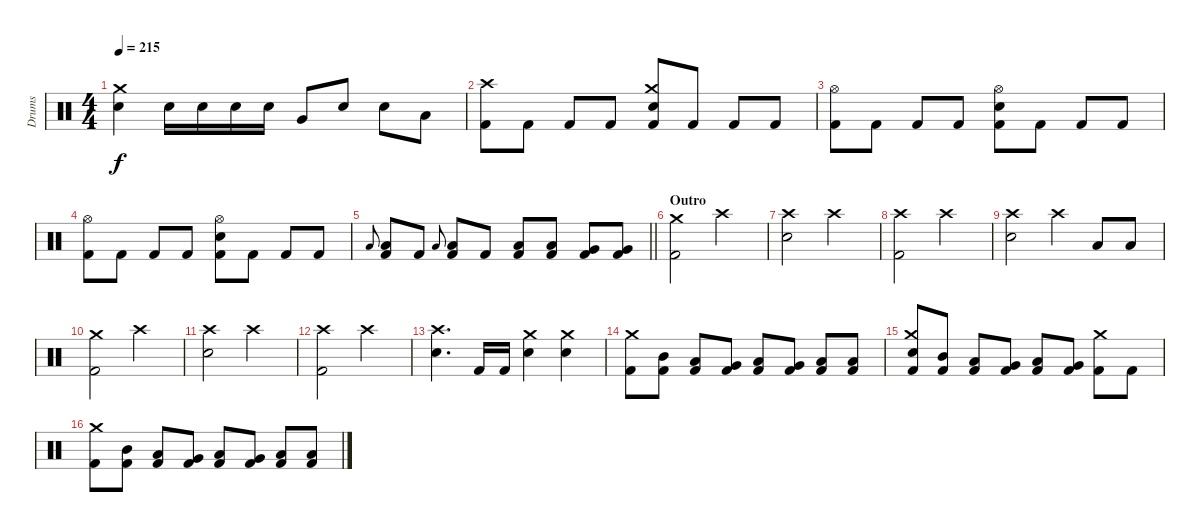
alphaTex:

\track ("Drums" "Drums") {instrument percussion}
\staff {score}
\articulation defaults
\ts (4 4)
\tempo 215
\clef neutral
\ks c
("Electric Snare (hit)" "Crash medium (hit)").4{dy f} "Electric Snare (hit)".16 "Electric Snare (hit)".16 "Electric Snare (hit)".16 "Electric Snare (hit)".16 "Very Low Tom (hit)".8 "Electric Snare (hit)".8 "Electric Snare (hit)".8 "Low Tom (hit)".8 |
("Kick (hit) 2" "Crash high (hit)").8 "Kick (hit) 2".8 "Kick (hit) 2".8 "Kick (hit) 2".8 ("Kick (hit) 2" "Electric Snare (hit)" "Crash medium (hit)").8 "Kick (hit) 2".8 "Kick (hit) 2".8 "Kick (hit) 2".8 |
("Kick (hit) 2" "Hi-Hat (open)").8 "Kick (hit) 2".8 "Kick (hit) 2".8 "Kick (hit) 2".8 ("Kick (hit) 2" "Electric Snare (hit)" "Hi-Hat (open)").8 "Kick (hit) 2".8 "Kick (hit) 2".8 "Kick (hit) 2".8 |
("Kick (hit) 2" "Hi-Hat (open)").8 "Kick (hit) 2".8 "Kick (hit) 2".8 "Kick (hit) 2".8 ("Kick (hit) 2" "Electric Snare (hit)" "Hi-Hat (open)").8 "Kick (hit) 2".8 "Kick (hit) 2".8 "Kick (hit) 2".8 |
\barLineRight lightlight "Low Tom (hit)".8{gr onbeat}
("Kick (hit) 2" "Low Tom (hit)").8 "Kick (hit) 2".8 "Low Tom (hit)".8{gr onbeat} ("Kick (hit) 2" "Low Tom (hit)").8 "Kick (hit) 2".8 ("Kick (hit) 2" "Low Tom (hit)").8 ("Kick (hit) 2" "Low Tom (hit)").8 ("Kick (hit) 2" "Very Low Tom (hit)").8 ("Kick (hit) 2" "Very Low Tom (hit)").8 |
\section ("" "Outro")
("Crash medium (hit)" "Kick (hit) 2").2 "Crash high (hit)".2 |
("Crash high (hit)" "Electric Snare (hit)").2 "Crash high (hit)".2 |
("Kick (hit) 2" "Crash high (hit)").2 "Crash high (hit)".2 |
("Crash high (hit)" "Electric Snare (hit)").2 "Crash high (hit)".4 "Low Tom (hit)".8 "Low Tom (hit)".8 |
("Crash medium (hit)" "Kick (hit) 2").2 "Crash high (hit)".2 |
("Crash high (hit)" "Electric Snare (hit)").2 "Crash high (hit)".2 |
("Kick (hit) 2" "Crash high (hit)").2 "Crash high (hit)".2 |
("Crash high (hit)" "Electric Snare (hit)").4{d} "Kick (hit) 2".16 "Kick (hit) 2".16 ("Electric Snare (hit)" "Crash medium (hit)").4 ("Crash medium (hit)" "Electric Snare (hit)").4 |
("Kick (hit) 2" "Crash medium (hit)").8 ("Kick (hit) 2" "Mid Tom (hit)").8 ("Kick (hit) 2" "Low Tom (hit)").8 ("Kick (hit) 2" "Very Low Tom (hit)").8 ("Kick (hit) 2" "Low Tom (hit)").8 ("Kick (hit) 2" "Very Low Tom (hit)").8 ("Kick (hit) 2" "Low Tom (hit)").8 ("Kick (hit) 2" "Low Floor Tom (hit)").8 |
("Electric Snare (hit)" "Kick (hit) 2" "Crash medium (hit)").8 ("Kick (hit) 2" "Mid Tom (hit)").8 ("Kick (hit) 2" "Low Tom (hit)").8 ("Kick (hit) 2" "Very Low Tom (hit)").8 ("Kick (hit) 2" "Low Tom (hit)").8 ("Kick (hit) 2" "Very Low Tom (hit)").8 ("Crash medium (hit)" "Kick (hit) 2").8 "Kick (hit) 2".8 |
("Kick (hit) 2" "Crash medium (hit)").8 ("Kick (hit) 2" "Mid Tom (hit)").8 ("Kick (hit) 2" "Low Tom (hit)").8 ("Kick (hit) 2" "Very Low Tom (hit)").8 ("Kick (hit) 2" "Low Tom (hit)").8 ("Kick (hit) 2" "Very Low Tom (hit)").8 ("Kick (hit) 2" "Low Tom (hit)").8 ("Kick (hit) 2" "Low Floor Tom (hit)").8
